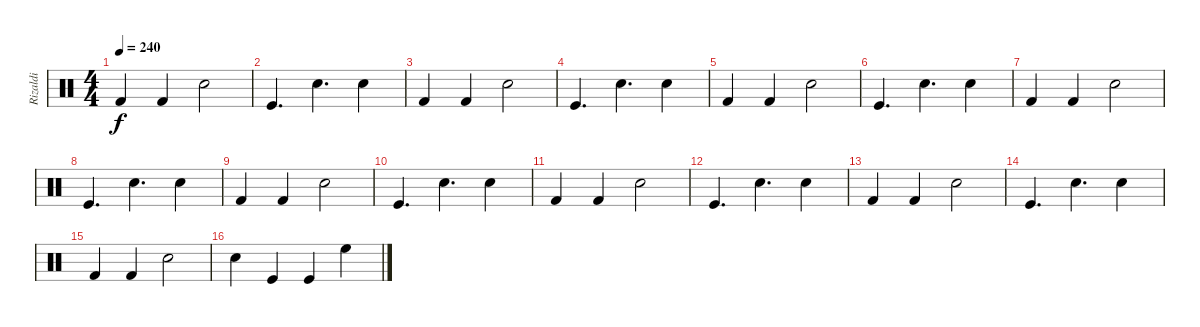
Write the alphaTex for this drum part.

\track ("Rizaldi" "Rizaldi") {instrument percussion}
\staff {score}
\articulation defaults
\ts (4 4)
\tempo 240
\clef neutral
\ks c "Kick (hit) 2".4{dy f} "Kick (hit) 2".4 "Snare (hit) 2".2
|
"Kick (hit)".4{d} "Electric Snare (hit)".4{d} "Electric Snare (hit)".4 |
"Kick (hit) 2".4 "Kick (hit) 2".4 "Snare (hit) 2".2 |
"Kick (hit)".4{d} "Electric Snare (hit)".4{d} "Electric Snare (hit)".4 |
"Kick (hit) 2".4 "Kick (hit) 2".4 "Snare (hit) 2".2 |
"Kick (hit)".4{d} "Electric Snare (hit)".4{d} "Electric Snare (hit)".4 |
"Kick (hit) 2".4 "Kick (hit) 2".4 "Snare (hit) 2".2 |
"Kick (hit)".4{d} "Electric Snare (hit)".4{d} "Electric Snare (hit)".4 |
"Kick (hit) 2".4 "Kick (hit) 2".4 "Snare (hit) 2".2 |
"Kick (hit)".4{d} "Electric Snare (hit)".4{d} "Electric Snare (hit)".4 |
"Kick (hit) 2".4 "Kick (hit) 2".4 "Snare (hit) 2".2 |
"Kick (hit)".4{d} "Electric Snare (hit)".4{d} "Electric Snare (hit)".4 |
"Kick (hit) 2".4 "Kick (hit) 2".4 "Snare (hit) 2".2 |
"Kick (hit)".4{d} "Electric Snare (hit)".4{d} "Electric Snare (hit)".4 |
"Kick (hit) 2".4 "Kick (hit) 2".4 "Snare (hit) 2".2 |
"Snare (hit) 2".4 "Kick (hit)".4 "Kick (hit)".4 "High Floor Tom (hit)".4
